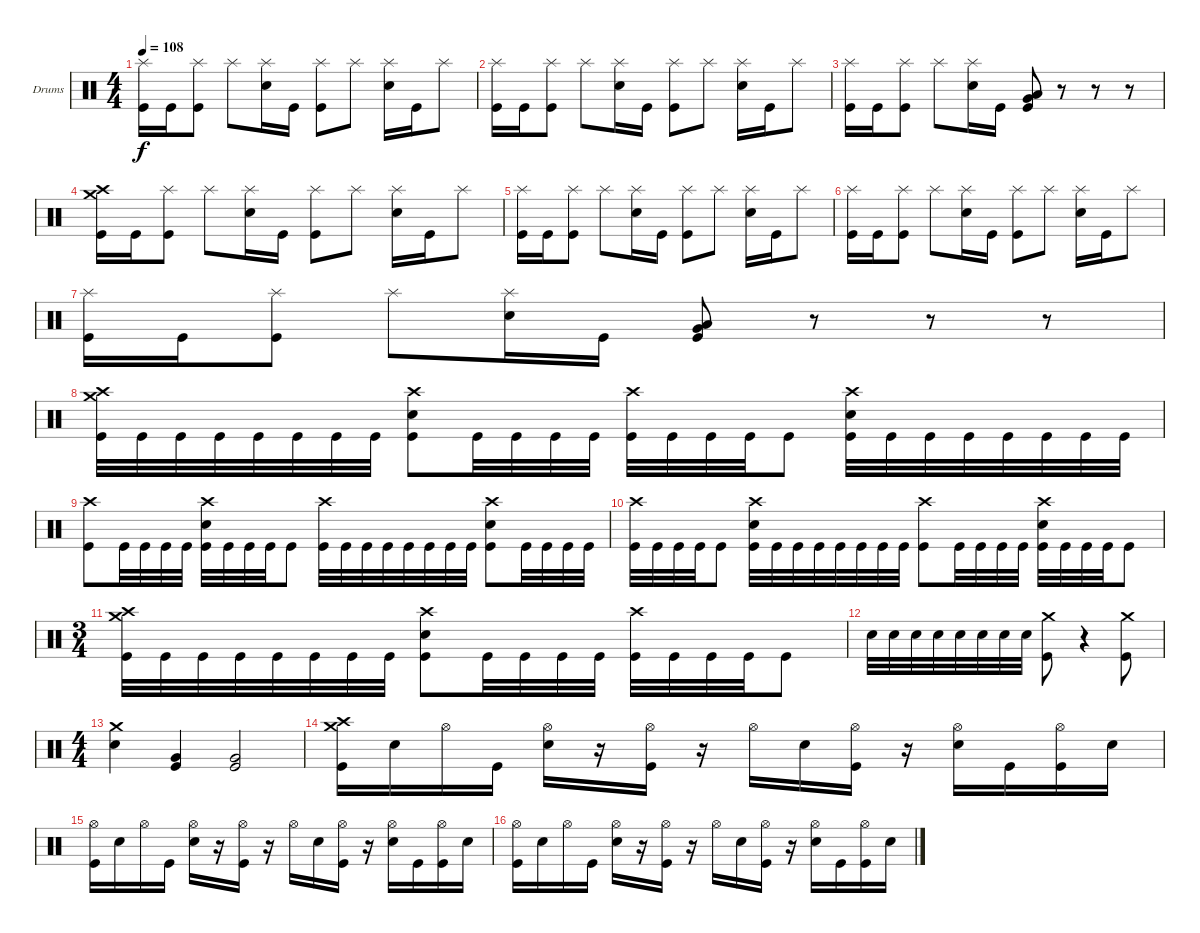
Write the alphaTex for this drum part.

\defaultSystemsLayout 4
\bracketExtendMode groupsimilarinstruments
\firstSystemTrackNameOrientation horizontal
\otherSystemsTrackNameOrientation horizontal
\track ("Drumkit" "Drums") {instrument percussion}
\staff {score}
\articulation defaults
\ts (4 4)
\tempo 108
\clef neutral
\ks c
("Kick (hit)" "Splash (hit)").16{dy f} "Kick (hit)".16 ("Kick (hit)" "Splash (hit)").8 "Splash (hit)".8 ("Splash (hit)" "Snare (hit) 2").16 "Kick (hit)".16 ("Splash (hit)" "Kick (hit)").8 "Splash (hit)".8 ("Splash (hit)" "Snare (hit) 2").16 "Kick (hit)".16 "Splash (hit)".8 |
("Kick (hit)" "Splash (hit)").16 "Kick (hit)".16 ("Kick (hit)" "Splash (hit)").8 "Splash (hit)".8 ("Splash (hit)" "Snare (hit) 2").16 "Kick (hit)".16 ("Splash (hit)" "Kick (hit)").8 "Splash (hit)".8 ("Splash (hit)" "Snare (hit) 2").16 "Kick (hit)".16 "Splash (hit)".8 |
("Kick (hit)" "Splash (hit)").16 "Kick (hit)".16 ("Kick (hit)" "Splash (hit)").8 "Splash (hit)".8 ("Splash (hit)" "Snare (hit) 2").16 "Kick (hit)".16 ("Kick (hit)" "Very Low Tom (hit)" "Low Tom (hit)").8 r.8 r.8 r.8 |
("Kick (hit)" "Crash medium (hit)" "Crash high (hit)").16 "Kick (hit)".16 ("Kick (hit)" "Splash (hit)").8 "Splash (hit)".8 ("Splash (hit)" "Snare (hit) 2").16 "Kick (hit)".16 ("Splash (hit)" "Kick (hit)").8 "Splash (hit)".8 ("Splash (hit)" "Snare (hit) 2").16 "Kick (hit)".16 "Splash (hit)".8 |
("Kick (hit)" "Splash (hit)").16 "Kick (hit)".16 ("Kick (hit)" "Splash (hit)").8 "Splash (hit)".8 ("Splash (hit)" "Snare (hit) 2").16 "Kick (hit)".16 ("Splash (hit)" "Kick (hit)").8 "Splash (hit)".8 ("Splash (hit)" "Snare (hit) 2").16 "Kick (hit)".16 "Splash (hit)".8 |
("Kick (hit)" "Splash (hit)").16 "Kick (hit)".16 ("Kick (hit)" "Splash (hit)").8 "Splash (hit)".8 ("Splash (hit)" "Snare (hit) 2").16 "Kick (hit)".16 ("Splash (hit)" "Kick (hit)").8 "Splash (hit)".8 ("Splash (hit)" "Snare (hit) 2").16 "Kick (hit)".16 "Splash (hit)".8 |
("Kick (hit)" "Splash (hit)").16 "Kick (hit)".16 ("Kick (hit)" "Splash (hit)").8 "Splash (hit)".8 ("Splash (hit)" "Snare (hit) 2").16 "Kick (hit)".16 ("Kick (hit)" "Very Low Tom (hit)" "Low Tom (hit)").8 r.8 r.8 r.8 |
("Kick (hit)" "Crash high (hit)" "Crash medium (hit)").32 "Kick (hit)".32 "Kick (hit)".32 "Kick (hit)".32 "Kick (hit)".32 "Kick (hit)".32 "Kick (hit)".32 "Kick (hit)".32 ("Kick (hit)" "Crash high (hit)" "Snare (hit) 2").8 "Kick (hit)".32 "Kick (hit)".32 "Kick (hit)".32 "Kick (hit)".32 ("Kick (hit)" "Crash high (hit)").32 "Kick (hit)".32 "Kick (hit)".32 "Kick (hit)".32 "Kick (hit)".8 ("Kick (hit)" "Crash high (hit)" "Snare (hit) 2").32 "Kick (hit)".32 "Kick (hit)".32 "Kick (hit)".32 "Kick (hit)".32 "Kick (hit)".32 "Kick (hit)".32 "Kick (hit)".32 |
("Kick (hit)" "Crash high (hit)").8 "Kick (hit)".32 "Kick (hit)".32 "Kick (hit)".32 "Kick (hit)".32 ("Kick (hit)" "Snare (hit) 2" "Crash high (hit)").32 "Kick (hit)".32 "Kick (hit)".32 "Kick (hit)".32 "Kick (hit)".8 ("Kick (hit)" "Crash high (hit)").32 "Kick (hit)".32 "Kick (hit)".32 "Kick (hit)".32 "Kick (hit)".32 "Kick (hit)".32 "Kick (hit)".32 "Kick (hit)".32 ("Kick (hit)" "Crash high (hit)" "Snare (hit) 2").8 "Kick (hit)".32 "Kick (hit)".32 "Kick (hit)".32 "Kick (hit)".32 |
("Kick (hit)" "Crash high (hit)").32 "Kick (hit)".32 "Kick (hit)".32 "Kick (hit)".32 "Kick (hit)".8 ("Kick (hit)" "Snare (hit) 2" "Crash high (hit)").32 "Kick (hit)".32 "Kick (hit)".32 "Kick (hit)".32 "Kick (hit)".32 "Kick (hit)".32 "Kick (hit)".32 "Kick (hit)".32 ("Kick (hit)" "Crash high (hit)").8 "Kick (hit)".32 "Kick (hit)".32 "Kick (hit)".32 "Kick (hit)".32 ("Kick (hit)" "Snare (hit) 2" "Crash high (hit)").32 "Kick (hit)".32 "Kick (hit)".32 "Kick (hit)".32 "Kick (hit)".8 |
\ts (3 4)
("Kick (hit)" "Crash high (hit)" "Crash medium (hit)").32 "Kick (hit)".32 "Kick (hit)".32 "Kick (hit)".32 "Kick (hit)".32 "Kick (hit)".32 "Kick (hit)".32 "Kick (hit)".32 ("Kick (hit)" "Crash high (hit)" "Snare (hit) 2").8 "Kick (hit)".32 "Kick (hit)".32 "Kick (hit)".32 "Kick (hit)".32 ("Kick (hit)" "Crash high (hit)").32 "Kick (hit)".32 "Kick (hit)".32 "Kick (hit)".32 "Kick (hit)".8 |
"Snare (hit) 2".32 "Snare (hit) 2".32 "Snare (hit) 2".32 "Snare (hit) 2".32 "Snare (hit) 2".32 "Snare (hit) 2".32 "Snare (hit) 2".32 "Snare (hit) 2".32 ("Kick (hit)" "Crash medium (hit)").8 r.4 ("Crash medium (hit)" "Kick (hit)").8 |
\ts (4 4)
("Snare (hit) 2" "Crash medium (hit)").4 ("Kick (hit)" "Very Low Tom (hit)").4 ("Kick (hit)" "Very Low Tom (hit)").2 |
("Crash medium (hit)" "Crash high (hit)" "Kick (hit)").16 "Snare (hit) 2".16 "Hi-Hat (open)".16 "Kick (hit)".16 ("Hi-Hat (open)" "Snare (hit) 2").16 r.16 ("Hi-Hat (open)" "Kick (hit)").16 r.16 "Hi-Hat (open)".16 "Snare (hit) 2".16 ("Hi-Hat (open)" "Kick (hit)").16 r.16 ("Hi-Hat (open)" "Snare (hit) 2").16 "Kick (hit)".16 ("Hi-Hat (open)" "Kick (hit)").16 "Snare (hit) 2".16 |
("Kick (hit)" "Hi-Hat (open)").16 "Snare (hit) 2".16 "Hi-Hat (open)".16 "Kick (hit)".16 ("Hi-Hat (open)" "Snare (hit) 2").16 r.16 ("Hi-Hat (open)" "Kick (hit)").16 r.16 "Hi-Hat (open)".16 "Snare (hit) 2".16 ("Hi-Hat (open)" "Kick (hit)").16 r.16 ("Hi-Hat (open)" "Snare (hit) 2").16 "Kick (hit)".16 ("Hi-Hat (open)" "Kick (hit)").16 "Snare (hit) 2".16 |
("Kick (hit)" "Hi-Hat (open)").16 "Snare (hit) 2".16 "Hi-Hat (open)".16 "Kick (hit)".16 ("Hi-Hat (open)" "Snare (hit) 2").16 r.16 ("Hi-Hat (open)" "Kick (hit)").16 r.16 "Hi-Hat (open)".16 "Snare (hit) 2".16 ("Hi-Hat (open)" "Kick (hit)").16 r.16 ("Hi-Hat (open)" "Snare (hit) 2").16 "Kick (hit)".16 ("Hi-Hat (open)" "Kick (hit)").16 "Snare (hit) 2".16
